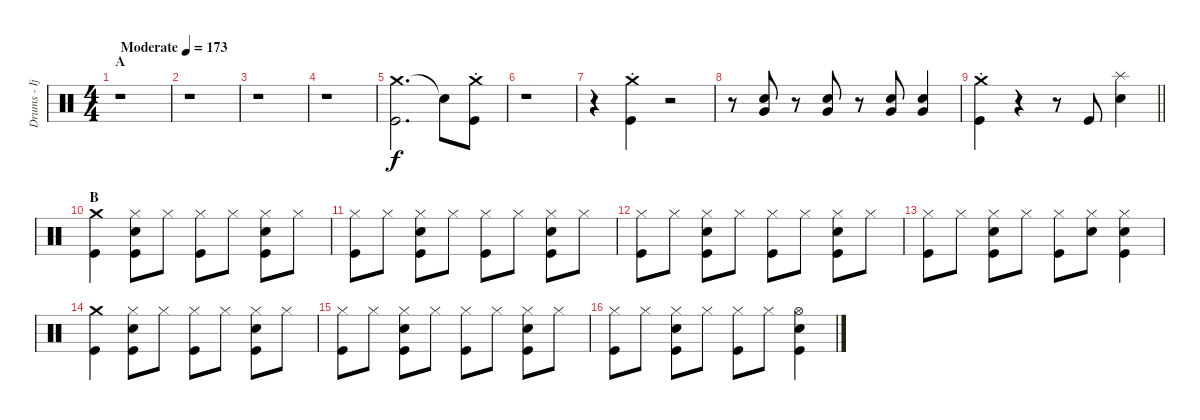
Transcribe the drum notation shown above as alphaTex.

\track ("Drums - Ijichi" "Drums - Ij") {instrument percussion}
\staff {score}
\articulation defaults
\ts (4 4)
\section ("" "A")
\tempo (173 "Moderate")
\clef neutral
\ks c
r.1{dy f} |
r.1 |
r.1 |
r.1 |
("Crash medium (hit)" "Kick (hit)").2{d} "Snare (hit)"{t}.8 ("Crash medium (hit)"{st} "Kick (hit)").8 |
r.1 |
r.4 ("Crash medium (hit)"{st} "Kick (hit)").4 r.2 |
r.8 ("Electric Snare (hit)" "Very Low Tom (hit)").8 r.8 ("Electric Snare (hit)" "Very Low Tom (hit)").8 r.8 ("Electric Snare (hit)" "Very Low Tom (hit)").8 ("Electric Snare (hit)" "Very Low Tom (hit)").4 |
\barLineRight lightlight
("Crash medium (hit)"{st} "Kick (hit)").4 r.4 r.8 "Kick (hit)".8 ("Splash (hit)" "Electric Snare (hit)").4 |
\section ("" "B")
("Crash medium (hit)" "Kick (hit)").4 ("Hi-Hat (closed)" "Electric Snare (hit)" "Kick (hit)").8 "Hi-Hat (closed)".8 ("Hi-Hat (closed)" "Kick (hit)").8 "Hi-Hat (closed)".8 ("Hi-Hat (closed)" "Electric Snare (hit)" "Kick (hit)").8 "Hi-Hat (closed)".8 |
("Hi-Hat (closed)" "Kick (hit)").8 "Hi-Hat (closed)".8 ("Hi-Hat (closed)" "Electric Snare (hit)" "Kick (hit)").8 "Hi-Hat (closed)".8 ("Hi-Hat (closed)" "Kick (hit)").8 "Hi-Hat (closed)".8 ("Hi-Hat (closed)" "Electric Snare (hit)" "Kick (hit)").8 "Hi-Hat (closed)".8 |
("Hi-Hat (closed)" "Kick (hit)").8 "Hi-Hat (closed)".8 ("Hi-Hat (closed)" "Electric Snare (hit)" "Kick (hit)").8 "Hi-Hat (closed)".8 ("Hi-Hat (closed)" "Kick (hit)").8 "Hi-Hat (closed)".8 ("Hi-Hat (closed)" "Electric Snare (hit)" "Kick (hit)").8 "Hi-Hat (closed)".8 |
("Hi-Hat (closed)" "Kick (hit)").8 "Hi-Hat (closed)".8 ("Hi-Hat (closed)" "Electric Snare (hit)" "Kick (hit)").8 "Hi-Hat (closed)".8 ("Hi-Hat (closed)" "Kick (hit)").8 ("Hi-Hat (closed)" "Electric Snare (hit)").8 ("Hi-Hat (closed)" "Electric Snare (hit)" "Kick (hit)").4 |
("Crash medium (hit)" "Kick (hit)").4 ("Hi-Hat (closed)" "Electric Snare (hit)" "Kick (hit)").8 "Hi-Hat (closed)".8 ("Hi-Hat (closed)" "Kick (hit)").8 "Hi-Hat (closed)".8 ("Hi-Hat (closed)" "Electric Snare (hit)" "Kick (hit)").8 "Hi-Hat (closed)".8 |
("Hi-Hat (closed)" "Kick (hit)").8 "Hi-Hat (closed)".8 ("Hi-Hat (closed)" "Electric Snare (hit)" "Kick (hit)").8 "Hi-Hat (closed)".8 ("Hi-Hat (closed)" "Kick (hit)").8 "Hi-Hat (closed)".8 ("Hi-Hat (closed)" "Electric Snare (hit)" "Kick (hit)").8 "Hi-Hat (closed)".8 |
("Hi-Hat (closed)" "Kick (hit)").8 "Hi-Hat (closed)".8 ("Hi-Hat (closed)" "Electric Snare (hit)" "Kick (hit)").8 "Hi-Hat (closed)".8 ("Hi-Hat (closed)" "Kick (hit)").8 "Hi-Hat (closed)".8 ("Hi-Hat (open)" "Electric Snare (hit)" "Kick (hit)").4
